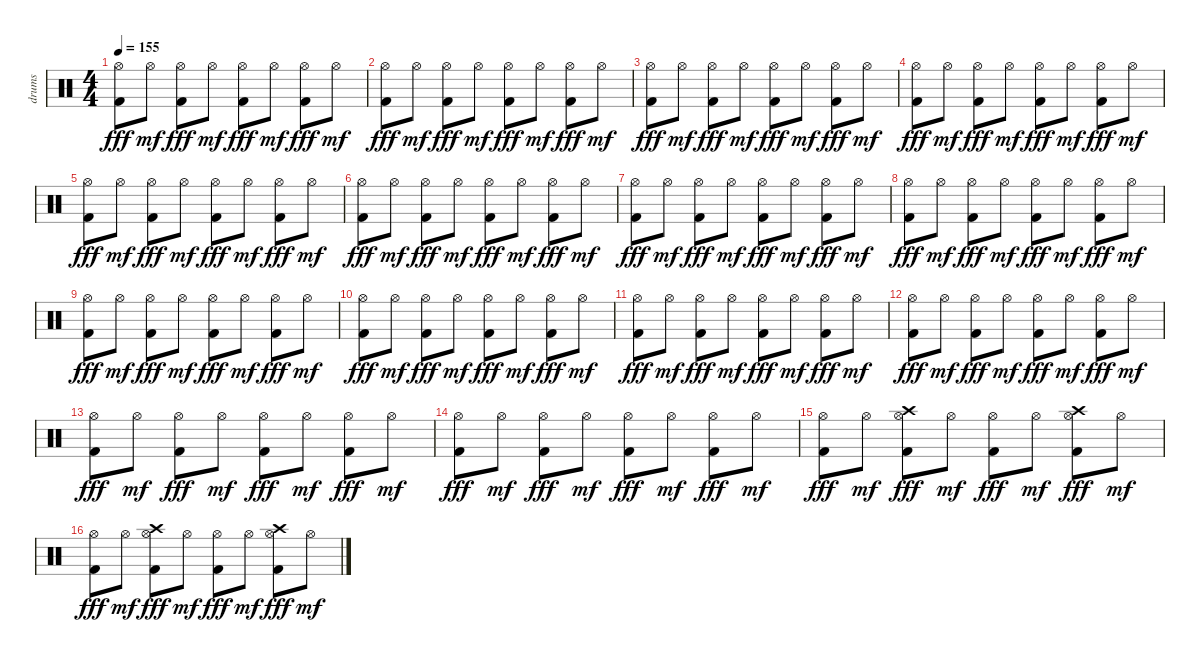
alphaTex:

\track ("drums" "drums") {instrument percussion}
\staff {score}
\articulation defaults
\ts (4 4)
\tempo 155
\clef neutral
\ks c
("Hi-Hat (open)" "Kick (hit) 2").8{dy fff} "Hi-Hat (open)".8{dy mf} ("Hi-Hat (open)" "Kick (hit) 2").8{dy fff} "Hi-Hat (open)".8{dy mf} ("Hi-Hat (open)" "Kick (hit) 2").8{dy fff} "Hi-Hat (open)".8{dy mf} ("Hi-Hat (open)" "Kick (hit) 2").8{dy fff} "Hi-Hat (open)".8{dy mf} |
("Hi-Hat (open)" "Kick (hit) 2").8{dy fff} "Hi-Hat (open)".8{dy mf} ("Hi-Hat (open)" "Kick (hit) 2").8{dy fff} "Hi-Hat (open)".8{dy mf} ("Hi-Hat (open)" "Kick (hit) 2").8{dy fff} "Hi-Hat (open)".8{dy mf} ("Hi-Hat (open)" "Kick (hit) 2").8{dy fff} "Hi-Hat (open)".8{dy mf} |
("Hi-Hat (open)" "Kick (hit) 2").8{dy fff} "Hi-Hat (open)".8{dy mf} ("Hi-Hat (open)" "Kick (hit) 2").8{dy fff} "Hi-Hat (open)".8{dy mf} ("Hi-Hat (open)" "Kick (hit) 2").8{dy fff} "Hi-Hat (open)".8{dy mf} ("Hi-Hat (open)" "Kick (hit) 2").8{dy fff} "Hi-Hat (open)".8{dy mf} |
("Hi-Hat (open)" "Kick (hit) 2").8{dy fff} "Hi-Hat (open)".8{dy mf} ("Hi-Hat (open)" "Kick (hit) 2").8{dy fff} "Hi-Hat (open)".8{dy mf} ("Hi-Hat (open)" "Kick (hit) 2").8{dy fff} "Hi-Hat (open)".8{dy mf} ("Hi-Hat (open)" "Kick (hit) 2").8{dy fff} "Hi-Hat (open)".8{dy mf} |
("Hi-Hat (open)" "Kick (hit) 2").8{dy fff} "Hi-Hat (open)".8{dy mf} ("Hi-Hat (open)" "Kick (hit) 2").8{dy fff} "Hi-Hat (open)".8{dy mf} ("Hi-Hat (open)" "Kick (hit) 2").8{dy fff} "Hi-Hat (open)".8{dy mf} ("Hi-Hat (open)" "Kick (hit) 2").8{dy fff} "Hi-Hat (open)".8{dy mf} |
("Hi-Hat (open)" "Kick (hit) 2").8{dy fff} "Hi-Hat (open)".8{dy mf} ("Hi-Hat (open)" "Kick (hit) 2").8{dy fff} "Hi-Hat (open)".8{dy mf} ("Hi-Hat (open)" "Kick (hit) 2").8{dy fff} "Hi-Hat (open)".8{dy mf} ("Hi-Hat (open)" "Kick (hit) 2").8{dy fff} "Hi-Hat (open)".8{dy mf} |
("Hi-Hat (open)" "Kick (hit) 2").8{dy fff} "Hi-Hat (open)".8{dy mf} ("Hi-Hat (open)" "Kick (hit) 2").8{dy fff} "Hi-Hat (open)".8{dy mf} ("Hi-Hat (open)" "Kick (hit) 2").8{dy fff} "Hi-Hat (open)".8{dy mf} ("Hi-Hat (open)" "Kick (hit) 2").8{dy fff} "Hi-Hat (open)".8{dy mf} |
("Hi-Hat (open)" "Kick (hit) 2").8{dy fff} "Hi-Hat (open)".8{dy mf} ("Hi-Hat (open)" "Kick (hit) 2").8{dy fff} "Hi-Hat (open)".8{dy mf} ("Hi-Hat (open)" "Kick (hit) 2").8{dy fff} "Hi-Hat (open)".8{dy mf} ("Hi-Hat (open)" "Kick (hit) 2").8{dy fff} "Hi-Hat (open)".8{dy mf} |
("Hi-Hat (open)" "Kick (hit) 2").8{dy fff} "Hi-Hat (open)".8{dy mf} ("Hi-Hat (open)" "Kick (hit) 2").8{dy fff} "Hi-Hat (open)".8{dy mf} ("Hi-Hat (open)" "Kick (hit) 2").8{dy fff} "Hi-Hat (open)".8{dy mf} ("Hi-Hat (open)" "Kick (hit) 2").8{dy fff} "Hi-Hat (open)".8{dy mf} |
("Hi-Hat (open)" "Kick (hit) 2").8{dy fff} "Hi-Hat (open)".8{dy mf} ("Hi-Hat (open)" "Kick (hit) 2").8{dy fff} "Hi-Hat (open)".8{dy mf} ("Hi-Hat (open)" "Kick (hit) 2").8{dy fff} "Hi-Hat (open)".8{dy mf} ("Hi-Hat (open)" "Kick (hit) 2").8{dy fff} "Hi-Hat (open)".8{dy mf} |
("Hi-Hat (open)" "Kick (hit) 2").8{dy fff} "Hi-Hat (open)".8{dy mf} ("Hi-Hat (open)" "Kick (hit) 2").8{dy fff} "Hi-Hat (open)".8{dy mf} ("Hi-Hat (open)" "Kick (hit) 2").8{dy fff} "Hi-Hat (open)".8{dy mf} ("Hi-Hat (open)" "Kick (hit) 2").8{dy fff} "Hi-Hat (open)".8{dy mf} |
("Hi-Hat (open)" "Kick (hit) 2").8{dy fff} "Hi-Hat (open)".8{dy mf} ("Hi-Hat (open)" "Kick (hit) 2").8{dy fff} "Hi-Hat (open)".8{dy mf} ("Hi-Hat (open)" "Kick (hit) 2").8{dy fff} "Hi-Hat (open)".8{dy mf} ("Hi-Hat (open)" "Kick (hit) 2").8{dy fff} "Hi-Hat (open)".8{dy mf} |
("Hi-Hat (open)" "Kick (hit) 2").8{dy fff} "Hi-Hat (open)".8{dy mf} ("Hi-Hat (open)" "Kick (hit) 2").8{dy fff} "Hi-Hat (open)".8{dy mf} ("Hi-Hat (open)" "Kick (hit) 2").8{dy fff} "Hi-Hat (open)".8{dy mf} ("Hi-Hat (open)" "Kick (hit) 2").8{dy fff} "Hi-Hat (open)".8{dy mf} |
("Hi-Hat (open)" "Kick (hit) 2").8{dy fff} "Hi-Hat (open)".8{dy mf} ("Hi-Hat (open)" "Kick (hit) 2").8{dy fff} "Hi-Hat (open)".8{dy mf} ("Hi-Hat (open)" "Kick (hit) 2").8{dy fff} "Hi-Hat (open)".8{dy mf} ("Hi-Hat (open)" "Kick (hit) 2").8{dy fff} "Hi-Hat (open)".8{dy mf} |
("Hi-Hat (open)" "Kick (hit) 2").8{dy fff} "Hi-Hat (open)".8{dy mf} ("Crash high (hit)" "Hi-Hat (open)" "Kick (hit) 2").8{dy fff} "Hi-Hat (open)".8{dy mf} ("Hi-Hat (open)" "Kick (hit) 2").8{dy fff} "Hi-Hat (open)".8{dy mf} ("Crash high (hit)" "Hi-Hat (open)" "Kick (hit) 2").8{dy fff} "Hi-Hat (open)".8{dy mf} |
("Hi-Hat (open)" "Kick (hit) 2").8{dy fff} "Hi-Hat (open)".8{dy mf} ("Crash high (hit)" "Hi-Hat (open)" "Kick (hit) 2").8{dy fff} "Hi-Hat (open)".8{dy mf} ("Hi-Hat (open)" "Kick (hit) 2").8{dy fff} "Hi-Hat (open)".8{dy mf} ("Crash high (hit)" "Hi-Hat (open)" "Kick (hit) 2").8{dy fff} "Hi-Hat (open)".8{dy mf}
